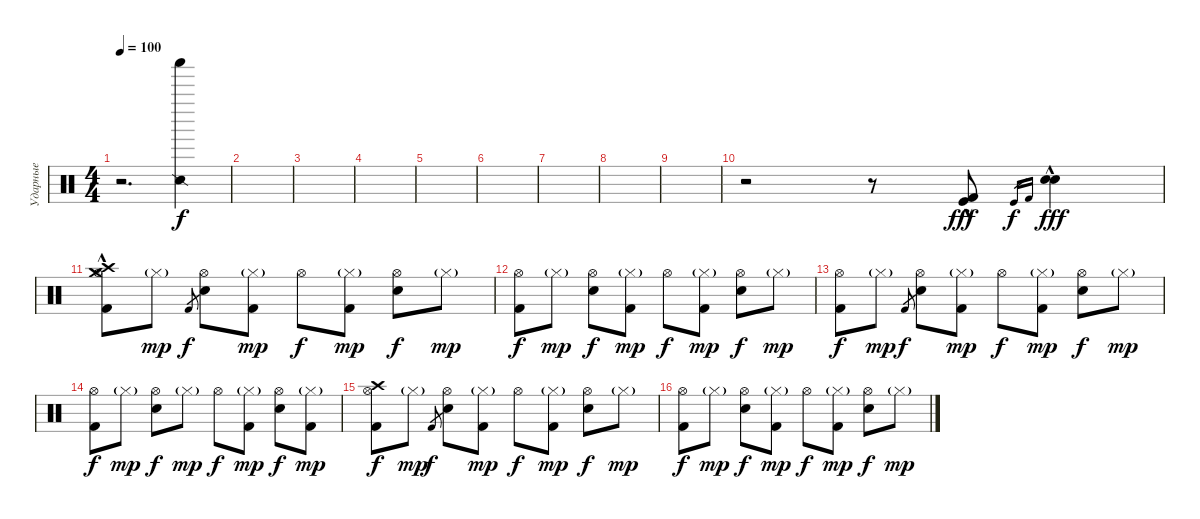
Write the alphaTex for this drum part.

\track ("Ударные" "Ударные") {instrument percussion}
\staff {score}
\articulation defaults
\ts (4 4)
\tempo 100
\clef neutral
\ks c
r.2{d dy f} ("Snare (side stick) 2" "Shaker (hit)").4 |
|
|
|
|
|
|
|
|
r.2 r.8 ("Kick (hit)"{hac} "Kick (hit) 2"{hac}).8{dy fff} "Kick (hit)".16{gr dy f} "Kick (hit) 2".16{gr} ("Electric Snare (hit)"{hac} "Snare (hit) 2"{hac}).4{dy fff} |
("Crash high (hit)"{hac} "Crash medium (hit)"{hac} "Hi-Hat (open)" "Kick (hit) 2").8 "Hi-Hat (closed)"{g}.8{dy mp} "Kick (hit) 2".8{gr dy f} ("Hi-Hat (open)" "Snare (hit) 2").8 ("Hi-Hat (closed)"{g} "Kick (hit) 2").8{dy mp} "Hi-Hat (open)".8{dy f} ("Hi-Hat (closed)"{g} "Kick (hit) 2").8{dy mp} ("Hi-Hat (open)" "Snare (hit) 2").8{dy f} "Hi-Hat (closed)"{g}.8{dy mp} |
("Hi-Hat (open)" "Kick (hit) 2").8{dy f} "Hi-Hat (closed)"{g}.8{dy mp} ("Hi-Hat (open)" "Snare (hit) 2").8{dy f} ("Hi-Hat (closed)"{g} "Kick (hit) 2").8{dy mp} "Hi-Hat (open)".8{dy f} ("Hi-Hat (closed)"{g} "Kick (hit) 2").8{dy mp} ("Hi-Hat (open)" "Snare (hit) 2").8{dy f} "Hi-Hat (closed)"{g}.8{dy mp} |
("Hi-Hat (open)" "Kick (hit) 2").8{dy f} "Hi-Hat (closed)"{g}.8{dy mp} "Kick (hit) 2".8{gr dy f} ("Hi-Hat (open)" "Snare (hit) 2").8 ("Hi-Hat (closed)"{g} "Kick (hit) 2").8{dy mp} "Hi-Hat (open)".8{dy f} ("Hi-Hat (closed)"{g} "Kick (hit) 2").8{dy mp} ("Hi-Hat (open)" "Snare (hit) 2").8{dy f} "Hi-Hat (closed)"{g}.8{dy mp} |
("Hi-Hat (open)" "Kick (hit) 2").8{dy f} "Hi-Hat (closed)"{g}.8{dy mp} ("Hi-Hat (open)" "Snare (hit) 2").8{dy f} "Hi-Hat (closed)"{g}.8{dy mp} "Hi-Hat (open)".8{dy f} ("Hi-Hat (closed)"{g} "Kick (hit) 2").8{dy mp} ("Hi-Hat (open)" "Snare (hit) 2").8{dy f} ("Hi-Hat (closed)"{g} "Kick (hit) 2").8{dy mp} |
("Crash high (hit)" "Hi-Hat (open)" "Kick (hit) 2").8{dy f} "Hi-Hat (closed)"{g}.8{dy mp} "Kick (hit) 2".8{gr dy f} ("Hi-Hat (open)" "Snare (hit) 2").8 ("Hi-Hat (closed)"{g} "Kick (hit) 2").8{dy mp} "Hi-Hat (open)".8{dy f} ("Hi-Hat (closed)"{g} "Kick (hit) 2").8{dy mp} ("Hi-Hat (open)" "Snare (hit) 2").8{dy f} "Hi-Hat (closed)"{g}.8{dy mp} |
("Hi-Hat (open)" "Kick (hit) 2").8{dy f} "Hi-Hat (closed)"{g}.8{dy mp} ("Hi-Hat (open)" "Snare (hit) 2").8{dy f} ("Hi-Hat (closed)"{g} "Kick (hit) 2").8{dy mp} "Hi-Hat (open)".8{dy f} ("Hi-Hat (closed)"{g} "Kick (hit) 2").8{dy mp} ("Hi-Hat (open)" "Snare (hit) 2").8{dy f} "Hi-Hat (closed)"{g}.8{dy mp}
